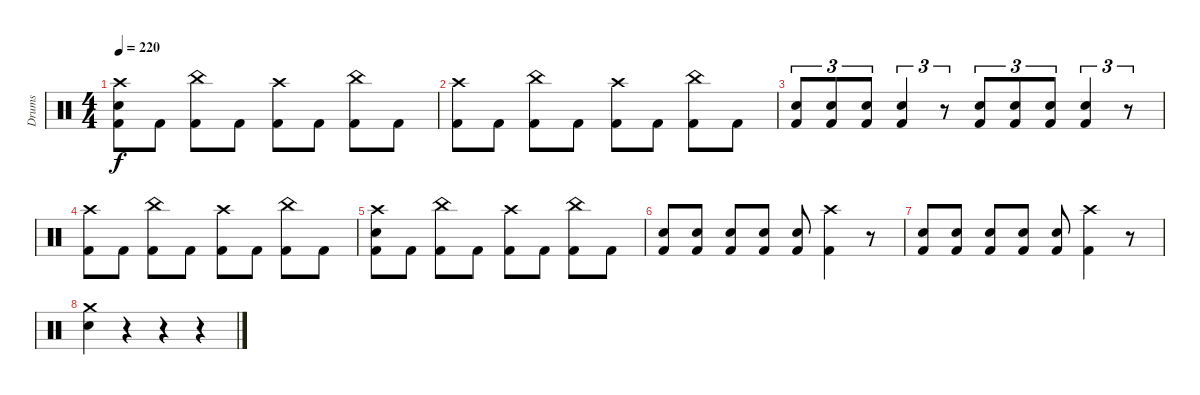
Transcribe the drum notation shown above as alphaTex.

\track ("Drums" "Drums") {instrument percussion}
\staff {score}
\articulation defaults
\ts (4 4)
\tempo 220
\clef neutral
\ks c
("Crash high (hit)" "Snare (hit) 2" "Kick (hit) 2").8{dy f} "Kick (hit) 2".8 ("China (hit)" "Kick (hit) 2").8 "Kick (hit) 2".8 ("Crash high (hit)" "Kick (hit) 2").8 "Kick (hit) 2".8 ("China (hit)" "Kick (hit) 2").8 "Kick (hit) 2".8 |
("Crash high (hit)" "Kick (hit) 2").8 "Kick (hit) 2".8 ("China (hit)" "Kick (hit) 2").8 "Kick (hit) 2".8 ("Crash high (hit)" "Kick (hit) 2").8 "Kick (hit) 2".8 ("China (hit)" "Kick (hit) 2").8 "Kick (hit) 2".8 |
("Snare (hit) 2" "Kick (hit) 2").8{tu (3 2)} ("Snare (hit) 2" "Kick (hit) 2").8{tu (3 2)} ("Snare (hit) 2" "Kick (hit) 2").8{tu (3 2)} ("Snare (hit) 2" "Kick (hit) 2").4{tu (3 2)} r.8{tu (3 2)} ("Snare (hit) 2" "Kick (hit) 2").8{tu (3 2)} ("Snare (hit) 2" "Kick (hit) 2").8{tu (3 2)} ("Snare (hit) 2" "Kick (hit) 2").8{tu (3 2)} ("Snare (hit) 2" "Kick (hit) 2").4{tu (3 2)} r.8{tu (3 2)} |
("Crash high (hit)" "Kick (hit) 2").8 "Kick (hit) 2".8 ("China (hit)" "Kick (hit) 2").8 "Kick (hit) 2".8 ("Crash high (hit)" "Kick (hit) 2").8 "Kick (hit) 2".8 ("China (hit)" "Kick (hit) 2").8 "Kick (hit) 2".8 |
("Crash high (hit)" "Snare (hit) 2" "Kick (hit) 2").8 "Kick (hit) 2".8 ("China (hit)" "Kick (hit) 2").8 "Kick (hit) 2".8 ("Crash high (hit)" "Kick (hit) 2").8 "Kick (hit) 2".8 ("China (hit)" "Kick (hit) 2").8 "Kick (hit) 2".8 |
("Snare (hit) 2" "Kick (hit) 2").8 ("Snare (hit) 2" "Kick (hit) 2").8 ("Snare (hit) 2" "Kick (hit) 2").8 ("Snare (hit) 2" "Kick (hit) 2").8 ("Snare (hit) 2" "Kick (hit) 2").8 ("Crash high (hit)" "Kick (hit) 2").4 r.8 |
("Snare (hit) 2" "Kick (hit) 2").8 ("Snare (hit) 2" "Kick (hit) 2").8 ("Snare (hit) 2" "Kick (hit) 2").8 ("Snare (hit) 2" "Kick (hit) 2").8 ("Snare (hit) 2" "Kick (hit) 2").8 ("Crash high (hit)" "Kick (hit) 2").4 r.8 |
("Crash medium (hit)" "Snare (hit) 2").4 r.4 r.4 r.4
